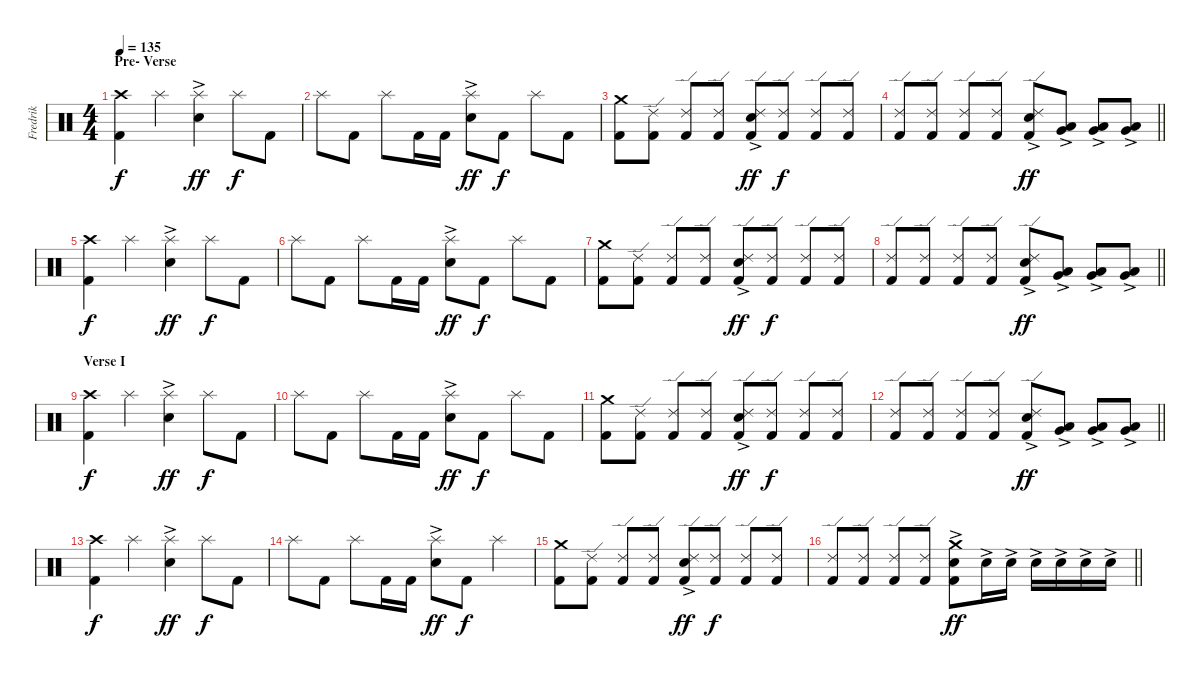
\track ("Fredrik" "Fredrik") {instrument percussion}
\staff {score}
\articulation defaults
\ts (4 4)
\section ("" "Pre- Verse")
\tempo 135
\clef neutral
\ks c
("Kick (hit) 2" "Crash high (hit)").4{dy f} "Splash (hit)".4 ("Snare (hit) 2"{ac} "Splash (hit)").4{dy ff} "Splash (hit)".8{dy f} "Kick (hit) 2".8 |
"Splash (hit)".8 "Kick (hit) 2".8 "Splash (hit)".8 "Kick (hit) 2".16 "Kick (hit) 2".16 ("Snare (hit) 2"{ac} "Splash (hit)").8{dy ff} "Kick (hit) 2".8{dy f} "Splash (hit)".8 "Kick (hit) 2".8 |
("Kick (hit) 2" "Crash medium (hit)").8 ("Kick (hit) 2" "Ride (edge) 2").8 ("Kick (hit) 2" "Ride (edge) 2").8 ("Kick (hit) 2" "Ride (edge) 2").8 ("Kick (hit) 2" "Snare (hit) 2"{ac} "Ride (edge) 2").8{dy ff} ("Kick (hit) 2" "Ride (edge) 2").8{dy f} ("Kick (hit) 2" "Ride (edge) 2").8 ("Kick (hit) 2" "Ride (edge) 2").8 |
\barLineRight lightlight
("Kick (hit) 2" "Ride (edge) 2").8 ("Kick (hit) 2" "Ride (edge) 2").8 ("Kick (hit) 2" "Ride (edge) 2").8 ("Kick (hit) 2" "Ride (edge) 2").8 ("Kick (hit) 2" "Snare (hit) 2"{ac} "Ride (edge) 2").8{dy ff} ("Very Low Tom (hit)"{ac} "Low Floor Tom (hit)"{ac}).8 ("Very Low Tom (hit)"{ac} "Low Floor Tom (hit)"{ac}).8 ("Very Low Tom (hit)"{ac} "Low Floor Tom (hit)"{ac}).8 |
\section ("" "")
("Kick (hit) 2" "Crash high (hit)").4{dy f} "Splash (hit)".4 ("Snare (hit) 2"{ac} "Splash (hit)").4{dy ff} "Splash (hit)".8{dy f} "Kick (hit) 2".8 |
"Splash (hit)".8 "Kick (hit) 2".8 "Splash (hit)".8 "Kick (hit) 2".16 "Kick (hit) 2".16 ("Snare (hit) 2"{ac} "Splash (hit)").8{dy ff} "Kick (hit) 2".8{dy f} "Splash (hit)".8 "Kick (hit) 2".8 |
("Kick (hit) 2" "Crash medium (hit)").8 ("Kick (hit) 2" "Ride (edge) 2").8 ("Kick (hit) 2" "Ride (edge) 2").8 ("Kick (hit) 2" "Ride (edge) 2").8 ("Kick (hit) 2" "Snare (hit) 2"{ac} "Ride (edge) 2").8{dy ff} ("Kick (hit) 2" "Ride (edge) 2").8{dy f} ("Kick (hit) 2" "Ride (edge) 2").8 ("Kick (hit) 2" "Ride (edge) 2").8 |
\barLineRight lightlight
("Kick (hit) 2" "Ride (edge) 2").8 ("Kick (hit) 2" "Ride (edge) 2").8 ("Kick (hit) 2" "Ride (edge) 2").8 ("Kick (hit) 2" "Ride (edge) 2").8 ("Kick (hit) 2" "Snare (hit) 2"{ac} "Ride (edge) 2").8{dy ff} ("Very Low Tom (hit)"{ac} "Low Floor Tom (hit)"{ac}).8 ("Very Low Tom (hit)"{ac} "Low Floor Tom (hit)"{ac}).8 ("Very Low Tom (hit)"{ac} "Low Floor Tom (hit)"{ac}).8 |
\section ("" "Verse I")
("Kick (hit) 2" "Crash high (hit)").4{dy f} "Splash (hit)".4 ("Snare (hit) 2"{ac} "Splash (hit)").4{dy ff} "Splash (hit)".8{dy f} "Kick (hit) 2".8 |
"Splash (hit)".8 "Kick (hit) 2".8 "Splash (hit)".8 "Kick (hit) 2".16 "Kick (hit) 2".16 ("Snare (hit) 2"{ac} "Splash (hit)").8{dy ff} "Kick (hit) 2".8{dy f} "Splash (hit)".8 "Kick (hit) 2".8 |
("Kick (hit) 2" "Crash medium (hit)").8 ("Kick (hit) 2" "Ride (edge) 2").8 ("Kick (hit) 2" "Ride (edge) 2").8 ("Kick (hit) 2" "Ride (edge) 2").8 ("Kick (hit) 2" "Snare (hit) 2"{ac} "Ride (edge) 2").8{dy ff} ("Kick (hit) 2" "Ride (edge) 2").8{dy f} ("Kick (hit) 2" "Ride (edge) 2").8 ("Kick (hit) 2" "Ride (edge) 2").8 |
\barLineRight lightlight
("Kick (hit) 2" "Ride (edge) 2").8 ("Kick (hit) 2" "Ride (edge) 2").8 ("Kick (hit) 2" "Ride (edge) 2").8 ("Kick (hit) 2" "Ride (edge) 2").8 ("Kick (hit) 2" "Snare (hit) 2"{ac} "Ride (edge) 2").8{dy ff} ("Very Low Tom (hit)"{ac} "Low Floor Tom (hit)"{ac}).8 ("Very Low Tom (hit)"{ac} "Low Floor Tom (hit)"{ac}).8 ("Very Low Tom (hit)"{ac} "Low Floor Tom (hit)"{ac}).8 |
\section ("" "")
("Kick (hit) 2" "Crash high (hit)").4{dy f} "Splash (hit)".4 ("Snare (hit) 2"{ac} "Splash (hit)").4{dy ff} "Splash (hit)".8{dy f} "Kick (hit) 2".8 |
"Splash (hit)".8 "Kick (hit) 2".8 "Splash (hit)".8 "Kick (hit) 2".16 "Kick (hit) 2".16 ("Snare (hit) 2"{ac} "Splash (hit)").8{dy ff} "Kick (hit) 2".8{dy f} "Splash (hit)".4 |
("Kick (hit) 2" "Crash medium (hit)").8 ("Kick (hit) 2" "Ride (edge) 2").8 ("Kick (hit) 2" "Ride (edge) 2").8 ("Kick (hit) 2" "Ride (edge) 2").8 ("Kick (hit) 2" "Snare (hit) 2"{ac} "Ride (edge) 2").8{dy ff} ("Kick (hit) 2" "Ride (edge) 2").8{dy f} ("Kick (hit) 2" "Ride (edge) 2").8 ("Kick (hit) 2" "Ride (edge) 2").8 |
\barLineRight lightlight
("Kick (hit) 2" "Ride (edge) 2").8 ("Kick (hit) 2" "Ride (edge) 2").8 ("Kick (hit) 2" "Ride (edge) 2").8 ("Kick (hit) 2" "Ride (edge) 2").8 ("Kick (hit) 2" "Snare (hit) 2"{ac} "Crash medium (hit)").8{dy ff} "Snare (hit) 2"{ac}.16 "Snare (hit) 2"{ac}.16 "Snare (hit) 2"{ac}.16 "Snare (hit) 2"{ac}.16 "Snare (hit) 2"{ac}.16 "Snare (hit) 2"{ac}.16
